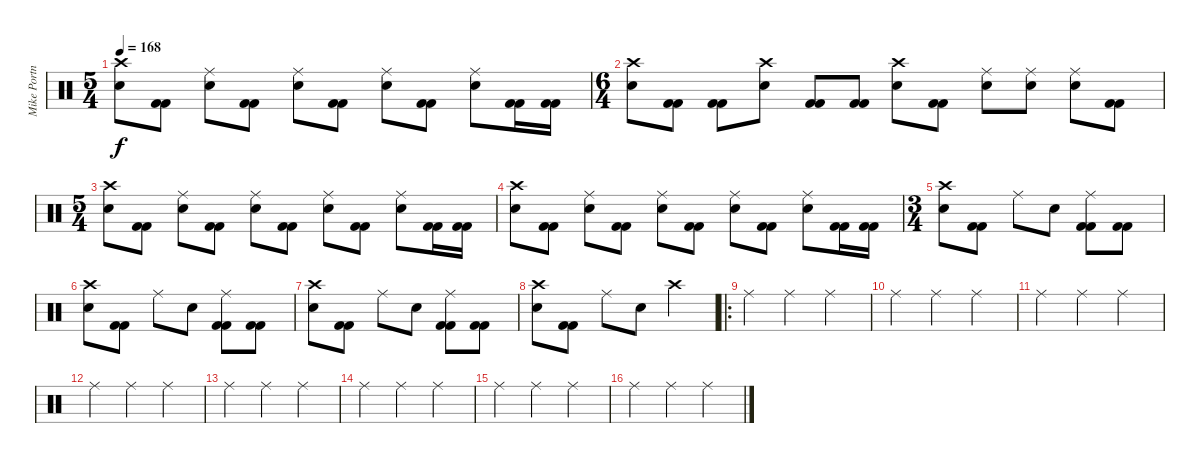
\track ("Mike Portnoy - Drum" "Mike Portn") {instrument percussion}
\staff {score}
\articulation defaults
\ts (5 4)
\tempo 168
\clef neutral
\ks c
("Crash high (hit)" "Snare (hit) 2").8{dy f} ("Kick (hit) 2" "Kick (hit) 2").8 ("Ride (middle)" "Snare (hit) 2").8 ("Kick (hit) 2" "Kick (hit) 2").8 ("Ride (middle)" "Snare (hit) 2").8 ("Kick (hit) 2" "Kick (hit) 2").8 ("Ride (middle)" "Snare (hit) 2").8 ("Kick (hit) 2" "Kick (hit) 2").8 ("Ride (middle)" "Snare (hit) 2").8 ("Kick (hit) 2" "Kick (hit) 2").16 ("Kick (hit) 2" "Kick (hit) 2").16 |
\ts (6 4)
("Crash high (hit)" "Snare (hit) 2").8 ("Kick (hit) 2" "Kick (hit) 2").8 ("Kick (hit) 2" "Kick (hit) 2").8 ("Crash high (hit)" "Snare (hit) 2").8 ("Kick (hit) 2" "Kick (hit) 2").8 ("Kick (hit) 2" "Kick (hit) 2").8 ("Crash high (hit)" "Snare (hit) 2").8 ("Kick (hit) 2" "Kick (hit) 2").8 ("Ride (middle)" "Snare (hit) 2").8 ("Ride (middle)" "Snare (hit) 2").8 ("Ride (middle)" "Snare (hit) 2").8 ("Kick (hit) 2" "Kick (hit) 2").8 |
\ts (5 4)
("Crash high (hit)" "Snare (hit) 2").8 ("Kick (hit) 2" "Kick (hit) 2").8 ("Ride (middle)" "Snare (hit) 2").8 ("Kick (hit) 2" "Kick (hit) 2").8 ("Ride (middle)" "Snare (hit) 2").8 ("Kick (hit) 2" "Kick (hit) 2").8 ("Ride (middle)" "Snare (hit) 2").8 ("Kick (hit) 2" "Kick (hit) 2").8 ("Ride (middle)" "Snare (hit) 2").8 ("Kick (hit) 2" "Kick (hit) 2").16 ("Kick (hit) 2" "Kick (hit) 2").16 |
("Crash high (hit)" "Snare (hit) 2").8 ("Kick (hit) 2" "Kick (hit) 2").8 ("Ride (middle)" "Snare (hit) 2").8 ("Kick (hit) 2" "Kick (hit) 2").8 ("Ride (middle)" "Snare (hit) 2").8 ("Kick (hit) 2" "Kick (hit) 2").8 ("Ride (middle)" "Snare (hit) 2").8 ("Kick (hit) 2" "Kick (hit) 2").8 ("Ride (middle)" "Snare (hit) 2").8 ("Kick (hit) 2" "Kick (hit) 2").16 ("Kick (hit) 2" "Kick (hit) 2").16 |
\ts (3 4)
("Crash high (hit)" "Snare (hit) 2").8 ("Kick (hit) 2" "Kick (hit) 2").8 "Ride (middle)".8 "Snare (hit) 2".8 ("Ride (middle)" "Kick (hit) 2" "Kick (hit) 2").8 ("Kick (hit) 2" "Kick (hit) 2").8 |
("Crash high (hit)" "Snare (hit) 2").8 ("Kick (hit) 2" "Kick (hit) 2").8 "Ride (middle)".8 "Snare (hit) 2".8 ("Ride (middle)" "Kick (hit) 2" "Kick (hit) 2").8 ("Kick (hit) 2" "Kick (hit) 2").8 |
("Crash high (hit)" "Snare (hit) 2").8 ("Kick (hit) 2" "Kick (hit) 2").8 "Ride (middle)".8 "Snare (hit) 2".8 ("Ride (middle)" "Kick (hit) 2" "Kick (hit) 2").8 ("Kick (hit) 2" "Kick (hit) 2").8 |
("Crash high (hit)" "Snare (hit) 2").8 ("Kick (hit) 2" "Kick (hit) 2").8 "Ride (middle)".8 "Snare (hit) 2".8 "Crash high (hit)".4 |
\ro "Ride (middle)".4 "Ride (middle)".4 "Ride (middle)".4
|
"Ride (middle)".4 "Ride (middle)".4 "Ride (middle)".4 |
"Ride (middle)".4 "Ride (middle)".4 "Ride (middle)".4 |
"Ride (middle)".4 "Ride (middle)".4 "Ride (middle)".4 |
"Ride (middle)".4 "Ride (middle)".4 "Ride (middle)".4 |
"Ride (middle)".4 "Ride (middle)".4 "Ride (middle)".4 |
"Ride (middle)".4 "Ride (middle)".4 "Ride (middle)".4 |
"Ride (middle)".4 "Ride (middle)".4 "Ride (middle)".4
